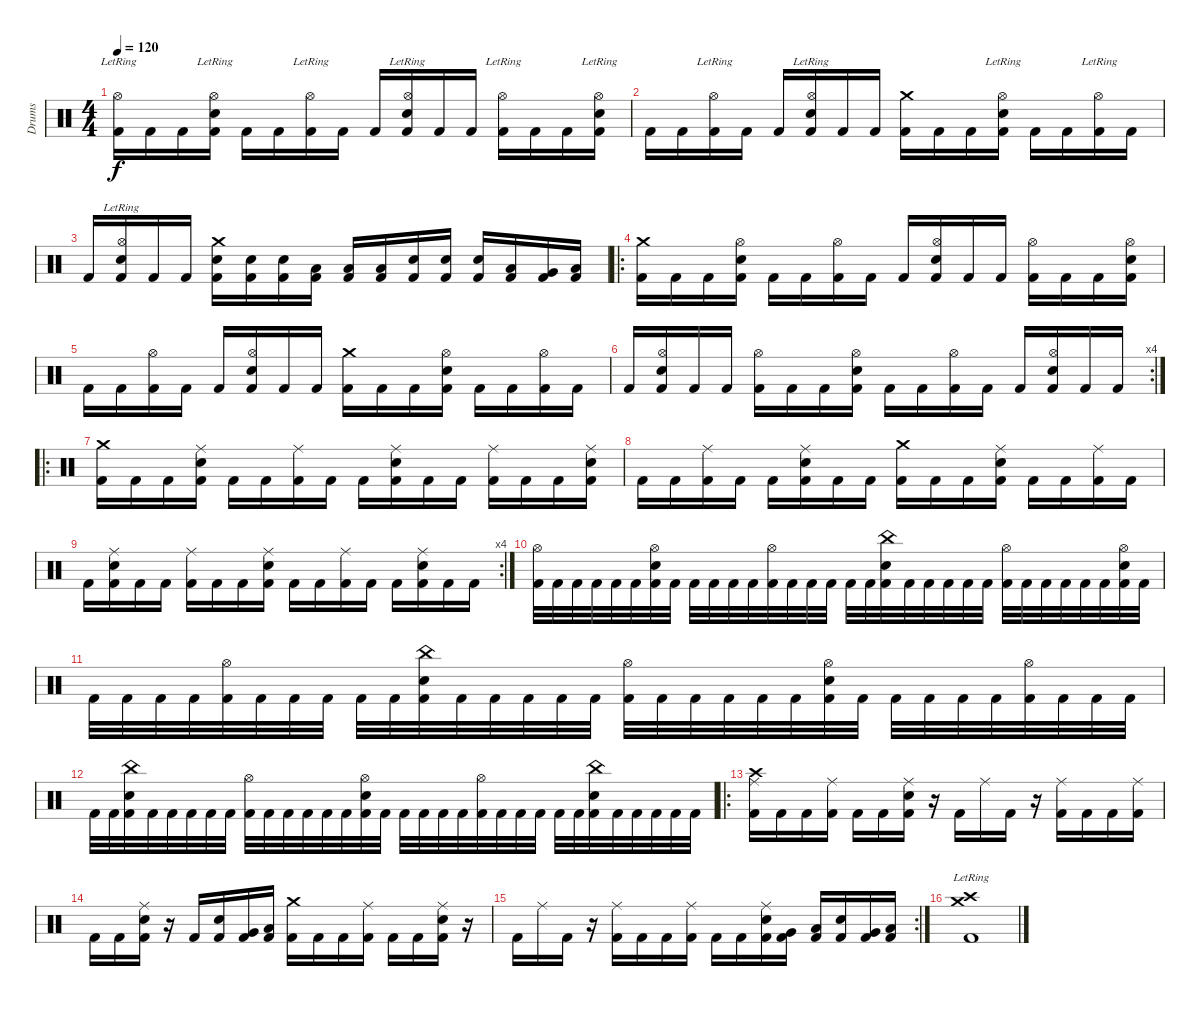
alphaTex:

\track ("Drums" "Drums") {instrument percussion}
\staff {score}
\articulation defaults
\ts (4 4)
\tempo 120
\clef neutral
\ks c
("Kick (hit) 2" "Hi-Hat (open)"{lr}).16{dy f} "Kick (hit) 2".16 "Kick (hit) 2".16 ("Kick (hit) 2" "Hi-Hat (open)"{lr} "Snare (hit) 2").16 "Kick (hit) 2".16 "Kick (hit) 2".16 ("Kick (hit) 2" "Hi-Hat (open)"{lr}).16 "Kick (hit) 2".16 "Kick (hit) 2".16 ("Kick (hit) 2" "Hi-Hat (open)"{lr} "Snare (hit) 2").16 "Kick (hit) 2".16 "Kick (hit) 2".16 ("Kick (hit) 2" "Hi-Hat (open)"{lr}).16 "Kick (hit) 2".16 "Kick (hit) 2".16 ("Kick (hit) 2" "Hi-Hat (open)"{lr} "Snare (hit) 2").16 |
"Kick (hit) 2".16 "Kick (hit) 2".16 ("Kick (hit) 2" "Hi-Hat (open)"{lr}).16 "Kick (hit) 2".16 "Kick (hit) 2".16 ("Kick (hit) 2" "Hi-Hat (open)"{lr} "Snare (hit) 2").16 "Kick (hit) 2".16 "Kick (hit) 2".16 ("Kick (hit) 2" "Crash medium (hit)").16 "Kick (hit) 2".16 "Kick (hit) 2".16 ("Kick (hit) 2" "Hi-Hat (open)"{lr} "Snare (hit) 2").16 "Kick (hit) 2".16 "Kick (hit) 2".16 ("Kick (hit) 2" "Hi-Hat (open)"{lr}).16 "Kick (hit) 2".16 |
"Kick (hit) 2".16 ("Kick (hit) 2" "Hi-Hat (open)"{lr} "Snare (hit) 2").16 "Kick (hit) 2".16 "Kick (hit) 2".16 ("Kick (hit) 2" "Snare (hit) 2" "Crash medium (hit)").16 ("Kick (hit) 2" "Snare (hit) 2").16 ("Kick (hit) 2" "Snare (hit) 2").16 ("Kick (hit) 2" "Low Tom (hit)").16 ("Kick (hit) 2" "Low Tom (hit)").16 ("Kick (hit) 2" "Low Tom (hit)").16 ("Kick (hit) 2" "Snare (hit) 2").16 ("Kick (hit) 2" "Snare (hit) 2").16 ("Kick (hit) 2" "Snare (hit) 2").16 ("Kick (hit) 2" "Low Tom (hit)").16 ("Kick (hit) 2" "Very Low Tom (hit)").16 ("Kick (hit) 2" "Low Floor Tom (hit)").16 |
\ro
("Kick (hit) 2" "Crash medium (hit)").16 "Kick (hit) 2".16 "Kick (hit) 2".16 ("Kick (hit) 2" "Hi-Hat (open)" "Snare (hit) 2").16 "Kick (hit) 2".16 "Kick (hit) 2".16 ("Kick (hit) 2" "Hi-Hat (open)").16 "Kick (hit) 2".16 "Kick (hit) 2".16 ("Kick (hit) 2" "Hi-Hat (open)" "Snare (hit) 2").16 "Kick (hit) 2".16 "Kick (hit) 2".16 ("Kick (hit) 2" "Hi-Hat (open)").16 "Kick (hit) 2".16 "Kick (hit) 2".16 ("Kick (hit) 2" "Hi-Hat (open)" "Snare (hit) 2").16 |
"Kick (hit) 2".16 "Kick (hit) 2".16 ("Kick (hit) 2" "Hi-Hat (open)").16 "Kick (hit) 2".16 "Kick (hit) 2".16 ("Kick (hit) 2" "Hi-Hat (open)" "Snare (hit) 2").16 "Kick (hit) 2".16 "Kick (hit) 2".16 ("Kick (hit) 2" "Crash medium (hit)").16 "Kick (hit) 2".16 "Kick (hit) 2".16 ("Kick (hit) 2" "Hi-Hat (open)" "Snare (hit) 2").16 "Kick (hit) 2".16 "Kick (hit) 2".16 ("Kick (hit) 2" "Hi-Hat (open)").16 "Kick (hit) 2".16 |
\rc 4 "Kick (hit) 2".16
("Kick (hit) 2" "Hi-Hat (open)" "Snare (hit) 2").16 "Kick (hit) 2".16 "Kick (hit) 2".16 ("Kick (hit) 2" "Hi-Hat (open)").16 "Kick (hit) 2".16 "Kick (hit) 2".16 ("Kick (hit) 2" "Hi-Hat (open)" "Snare (hit) 2").16 "Kick (hit) 2".16 "Kick (hit) 2".16 ("Kick (hit) 2" "Hi-Hat (open)").16 "Kick (hit) 2".16 "Kick (hit) 2".16 ("Kick (hit) 2" "Hi-Hat (open)" "Snare (hit) 2").16 "Kick (hit) 2".16 "Kick (hit) 2".16 |
\ro
("Kick (hit) 2" "Crash medium (hit)").16 "Kick (hit) 2".16 "Kick (hit) 2".16 ("Kick (hit) 2" "Ride (middle)" "Snare (hit) 2").16 "Kick (hit) 2".16 "Kick (hit) 2".16 ("Kick (hit) 2" "Ride (middle)").16 "Kick (hit) 2".16 "Kick (hit) 2".16 ("Kick (hit) 2" "Ride (middle)" "Snare (hit) 2").16 "Kick (hit) 2".16 "Kick (hit) 2".16 ("Kick (hit) 2" "Ride (middle)").16 "Kick (hit) 2".16 "Kick (hit) 2".16 ("Kick (hit) 2" "Ride (middle)" "Snare (hit) 2").16 |
"Kick (hit) 2".16 "Kick (hit) 2".16 ("Kick (hit) 2" "Ride (middle)").16 "Kick (hit) 2".16 "Kick (hit) 2".16 ("Kick (hit) 2" "Ride (middle)" "Snare (hit) 2").16 "Kick (hit) 2".16 "Kick (hit) 2".16 ("Kick (hit) 2" "Crash medium (hit)").16 "Kick (hit) 2".16 "Kick (hit) 2".16 ("Kick (hit) 2" "Ride (middle)" "Snare (hit) 2").16 "Kick (hit) 2".16 "Kick (hit) 2".16 ("Kick (hit) 2" "Ride (middle)").16 "Kick (hit) 2".16 |
\rc 4 "Kick (hit) 2".16
("Kick (hit) 2" "Ride (middle)" "Snare (hit) 2").16 "Kick (hit) 2".16 "Kick (hit) 2".16 ("Kick (hit) 2" "Ride (middle)").16 "Kick (hit) 2".16 "Kick (hit) 2".16 ("Kick (hit) 2" "Ride (middle)" "Snare (hit) 2").16 "Kick (hit) 2".16 "Kick (hit) 2".16 ("Kick (hit) 2" "Ride (middle)").16 "Kick (hit) 2".16 "Kick (hit) 2".16 ("Kick (hit) 2" "Ride (middle)" "Snare (hit) 2").16 "Kick (hit) 2".16 "Kick (hit) 2".16 |
("Kick (hit) 2" "Hi-Hat (open)").32 "Kick (hit) 2".32 "Kick (hit) 2".32 "Kick (hit) 2".32 "Kick (hit) 2".32 "Kick (hit) 2".32 ("Kick (hit) 2" "Hi-Hat (open)" "Snare (hit) 2").32 "Kick (hit) 2".32 "Kick (hit) 2".32 "Kick (hit) 2".32 "Kick (hit) 2".32 "Kick (hit) 2".32 ("Kick (hit) 2" "Hi-Hat (open)").32 "Kick (hit) 2".32 "Kick (hit) 2".32 "Kick (hit) 2".32 "Kick (hit) 2".32 "Kick (hit) 2".32 ("Kick (hit) 2" "Snare (hit) 2" "China (hit)").32 "Kick (hit) 2".32 "Kick (hit) 2".32 "Kick (hit) 2".32 "Kick (hit) 2".32 "Kick (hit) 2".32 ("Kick (hit) 2" "Hi-Hat (open)").32 "Kick (hit) 2".32 "Kick (hit) 2".32 "Kick (hit) 2".32 "Kick (hit) 2".32 "Kick (hit) 2".32 ("Kick (hit) 2" "Hi-Hat (open)" "Snare (hit) 2").32 "Kick (hit) 2".32 |
"Kick (hit) 2".32 "Kick (hit) 2".32 "Kick (hit) 2".32 "Kick (hit) 2".32 ("Kick (hit) 2" "Hi-Hat (open)").32 "Kick (hit) 2".32 "Kick (hit) 2".32 "Kick (hit) 2".32 "Kick (hit) 2".32 "Kick (hit) 2".32 ("Kick (hit) 2" "Snare (hit) 2" "China (hit)").32 "Kick (hit) 2".32 "Kick (hit) 2".32 "Kick (hit) 2".32 "Kick (hit) 2".32 "Kick (hit) 2".32 ("Kick (hit) 2" "Hi-Hat (open)").32 "Kick (hit) 2".32 "Kick (hit) 2".32 "Kick (hit) 2".32 "Kick (hit) 2".32 "Kick (hit) 2".32 ("Kick (hit) 2" "Hi-Hat (open)" "Snare (hit) 2").32 "Kick (hit) 2".32 "Kick (hit) 2".32 "Kick (hit) 2".32 "Kick (hit) 2".32 "Kick (hit) 2".32 ("Kick (hit) 2" "Hi-Hat (open)").32 "Kick (hit) 2".32 "Kick (hit) 2".32 "Kick (hit) 2".32 |
"Kick (hit) 2".32 "Kick (hit) 2".32 ("Kick (hit) 2" "Snare (hit) 2" "China (hit)").32 "Kick (hit) 2".32 "Kick (hit) 2".32 "Kick (hit) 2".32 "Kick (hit) 2".32 "Kick (hit) 2".32 ("Kick (hit) 2" "Hi-Hat (open)").32 "Kick (hit) 2".32 "Kick (hit) 2".32 "Kick (hit) 2".32 "Kick (hit) 2".32 "Kick (hit) 2".32 ("Kick (hit) 2" "Hi-Hat (open)" "Snare (hit) 2").32 "Kick (hit) 2".32 "Kick (hit) 2".32 "Kick (hit) 2".32 "Kick (hit) 2".32 "Kick (hit) 2".32 ("Kick (hit) 2" "Hi-Hat (open)").32 "Kick (hit) 2".32 "Kick (hit) 2".32 "Kick (hit) 2".32 "Kick (hit) 2".32 "Kick (hit) 2".32 ("Kick (hit) 2" "Snare (hit) 2" "China (hit)").32 "Kick (hit) 2".32 "Kick (hit) 2".32 "Kick (hit) 2".32 "Kick (hit) 2".32 "Kick (hit) 2".32 |
\ro
("Kick (hit) 2" "Ride (middle)" "Crash high (hit)").16 "Kick (hit) 2".16 "Kick (hit) 2".16 ("Kick (hit) 2" "Ride (middle)").16 "Kick (hit) 2".16 "Kick (hit) 2".16 ("Kick (hit) 2" "Ride (middle)" "Snare (hit) 2").16 r.16 "Kick (hit) 2".16 "Ride (middle)".16 "Kick (hit) 2".16 r.16 ("Kick (hit) 2" "Ride (middle)").16 "Kick (hit) 2".16 "Kick (hit) 2".16 ("Kick (hit) 2" "Ride (middle)").16 |
"Kick (hit) 2".16 "Kick (hit) 2".16 ("Kick (hit) 2" "Ride (middle)" "Snare (hit) 2").16 r.16 "Kick (hit) 2".16 ("Kick (hit) 2" "Snare (hit) 2").16 ("Kick (hit) 2" "Very Low Tom (hit)").16 ("Kick (hit) 2" "Low Floor Tom (hit)").16 ("Kick (hit) 2" "Crash medium (hit)").16 "Kick (hit) 2".16 "Kick (hit) 2".16 ("Kick (hit) 2" "Ride (middle)").16 "Kick (hit) 2".16 "Kick (hit) 2".16 ("Kick (hit) 2" "Ride (middle)" "Snare (hit) 2").16 r.16 |
\rc 2 "Kick (hit) 2".16 "Ride (middle)".16 "Kick (hit) 2".16
r.16 ("Kick (hit) 2" "Ride (middle)").16 "Kick (hit) 2".16 "Kick (hit) 2".16 ("Kick (hit) 2" "Ride (middle)").16 "Kick (hit) 2".16 "Kick (hit) 2".16 ("Kick (hit) 2" "Ride (middle)" "Snare (hit) 2").16 ("Kick (hit) 2" "Very Low Tom (hit)").16 ("Kick (hit) 2" "Low Floor Tom (hit)").16 ("Kick (hit) 2" "Snare (hit) 2").16 ("Kick (hit) 2" "Very Low Tom (hit)").16 ("Kick (hit) 2" "Low Floor Tom (hit)").16 |
("Kick (hit) 2"{lr} "Crash high (hit)"{lr} "Crash medium (hit)"{lr}).1
